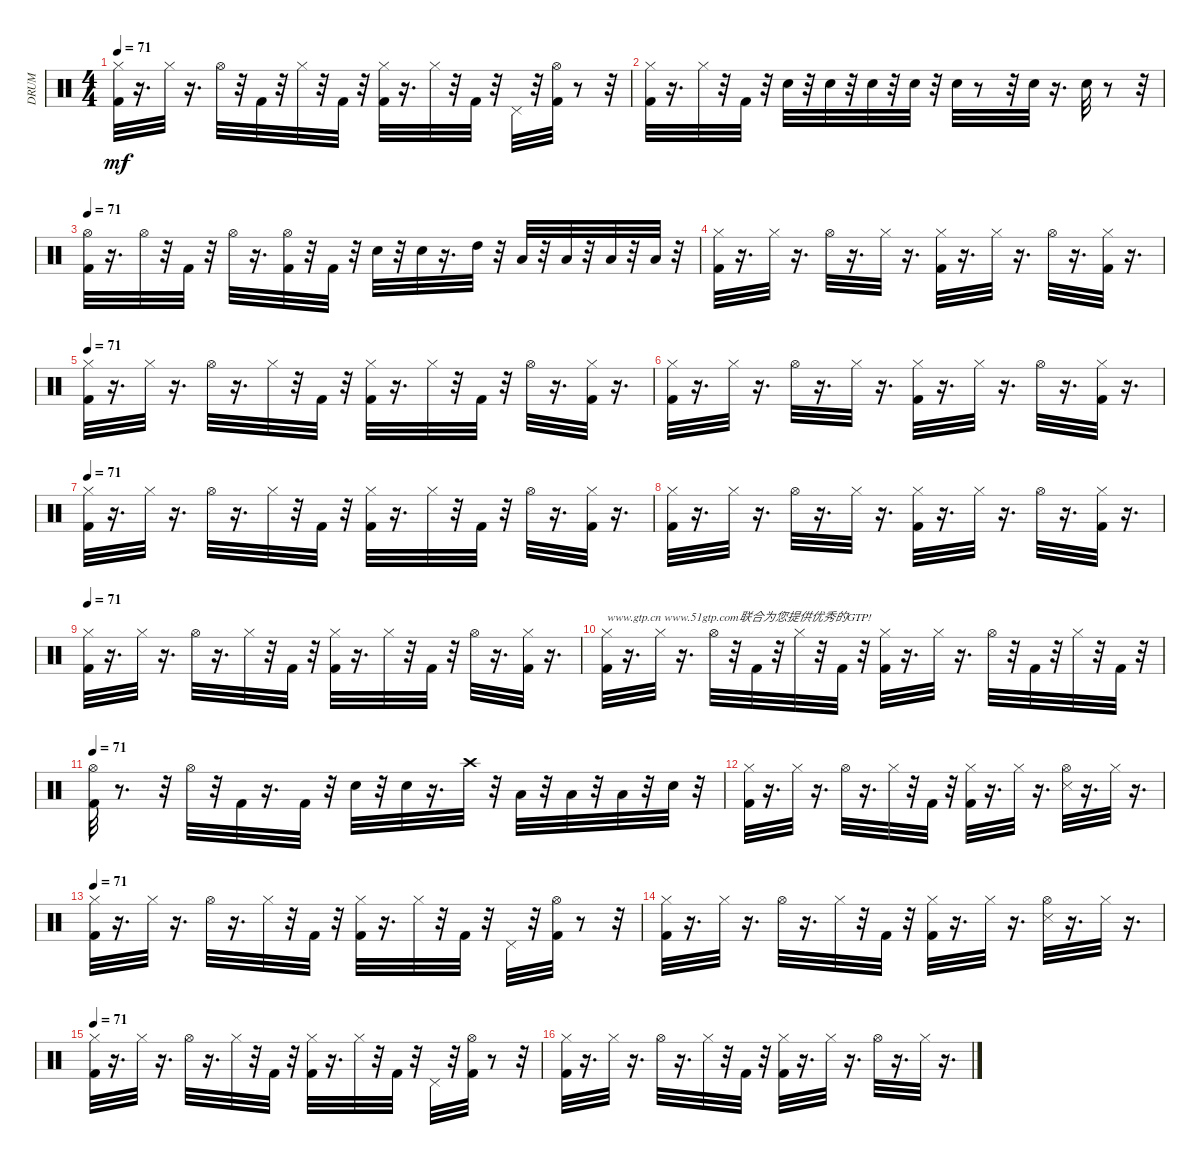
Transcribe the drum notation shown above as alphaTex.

\track ("DRUM" "DRUM") {instrument percussion}
\staff {score}
\articulation defaults
\ts (4 4)
\tempo 71
\clef neutral
\ks c
("Kick (hit) 2" "Hi-Hat (closed)").32{dy mf} r.16{d} "Hi-Hat (closed)".32 r.16{d} "Hi-Hat (open)".32 r.32 "Kick (hit) 2".32 r.32 "Hi-Hat (closed)".32 r.32 "Kick (hit) 2".32 r.32 ("Kick (hit) 2" "Hi-Hat (closed)").32 r.16{d} "Hi-Hat (closed)".32 r.32 "Kick (hit) 2".32 r.32 "Pedal Hi-Hat (hit)".32 r.32 ("Kick (hit) 2" "Hi-Hat (open)").32 r.8 r.32 |
("Kick (hit) 2" "Hi-Hat (closed)").32 r.16{d} "Hi-Hat (closed)".32 r.32 "Kick (hit) 2".32 r.32 "Snare (hit) 2".32 r.32 "Snare (hit) 2".32 r.32 "Snare (hit) 2".32 r.32 "Snare (hit) 2".32 r.32 "Snare (hit) 2".32 r.8 r.32 "Snare (hit) 2".32 r.16{d} "Snare (hit) 2".32 r.8 r.32 |
\tempo 71
("Kick (hit) 2" "Hi-Hat (open)").32 r.16{d} "Hi-Hat (open)".32 r.32 "Kick (hit) 2".32 r.32 "Hi-Hat (open)".32 r.16{d} ("Kick (hit) 2" "Hi-Hat (open)").32 r.32 "Kick (hit) 2".32 r.32 "Snare (hit) 2".32 r.32 "Snare (hit) 2".32 r.16{d} "High Tom (hit)".32 r.32 "Low Tom (hit)".32 r.32 "Low Tom (hit)".32 r.32 "Low Floor Tom (hit)".32 r.32 "Low Floor Tom (hit)".32 r.32 |
("Kick (hit) 2" "Hi-Hat (closed)").32 r.16{d} "Hi-Hat (closed)".32 r.16{d} "Hi-Hat (open)".32 r.16{d} "Hi-Hat (closed)".32 r.16{d} ("Kick (hit) 2" "Hi-Hat (closed)").32 r.16{d} "Hi-Hat (closed)".32 r.16{d} "Hi-Hat (open)".32 r.16{d} ("Kick (hit) 2" "Hi-Hat (closed)").32 r.16{d} |
\tempo 71
("Kick (hit) 2" "Hi-Hat (closed)").32 r.16{d} "Hi-Hat (closed)".32 r.16{d} "Hi-Hat (open)".32 r.16{d} "Hi-Hat (closed)".32 r.32 "Kick (hit) 2".32 r.32 ("Kick (hit) 2" "Hi-Hat (closed)").32 r.16{d} "Hi-Hat (closed)".32 r.32 "Kick (hit) 2".32 r.32 "Hi-Hat (open)".32 r.16{d} ("Kick (hit) 2" "Hi-Hat (closed)").32 r.16{d} |
("Kick (hit) 2" "Hi-Hat (closed)").32 r.16{d} "Hi-Hat (closed)".32 r.16{d} "Hi-Hat (open)".32 r.16{d} "Hi-Hat (closed)".32 r.16{d} ("Kick (hit) 2" "Hi-Hat (closed)").32 r.16{d} "Hi-Hat (closed)".32 r.16{d} "Hi-Hat (open)".32 r.16{d} ("Kick (hit) 2" "Hi-Hat (closed)").32 r.16{d} |
\tempo 71
("Kick (hit) 2" "Hi-Hat (closed)").32 r.16{d} "Hi-Hat (closed)".32 r.16{d} "Hi-Hat (open)".32 r.16{d} "Hi-Hat (closed)".32 r.32 "Kick (hit) 2".32 r.32 ("Kick (hit) 2" "Hi-Hat (closed)").32 r.16{d} "Hi-Hat (closed)".32 r.32 "Kick (hit) 2".32 r.32 "Hi-Hat (open)".32 r.16{d} ("Kick (hit) 2" "Hi-Hat (closed)").32 r.16{d} |
("Kick (hit) 2" "Hi-Hat (closed)").32 r.16{d} "Hi-Hat (closed)".32 r.16{d} "Hi-Hat (open)".32 r.16{d} "Hi-Hat (closed)".32 r.16{d} ("Kick (hit) 2" "Hi-Hat (closed)").32 r.16{d} "Hi-Hat (closed)".32 r.16{d} "Hi-Hat (open)".32 r.16{d} ("Kick (hit) 2" "Hi-Hat (closed)").32 r.16{d} |
\tempo 71
("Kick (hit) 2" "Hi-Hat (closed)").32 r.16{d} "Hi-Hat (closed)".32 r.16{d} "Hi-Hat (open)".32 r.16{d} "Hi-Hat (closed)".32 r.32 "Kick (hit) 2".32 r.32 ("Kick (hit) 2" "Hi-Hat (closed)").32 r.16{d} "Hi-Hat (closed)".32 r.32 "Kick (hit) 2".32 r.32 "Hi-Hat (open)".32 r.16{d} ("Kick (hit) 2" "Hi-Hat (closed)").32 r.16{d} |
("Kick (hit) 2" "Hi-Hat (closed)").32{txt "www.gtp.cn www.51gtp.com联合为您提供优秀的GTP!"} r.16{d} "Hi-Hat (closed)".32 r.16{d} "Hi-Hat (open)".32 r.32 "Kick (hit) 2".32 r.32 "Hi-Hat (closed)".32 r.32 "Kick (hit) 2".32 r.32 ("Kick (hit) 2" "Hi-Hat (closed)").32 r.16{d} "Hi-Hat (closed)".32 r.16{d} "Hi-Hat (open)".32 r.32 "Kick (hit) 2".32 r.32 "Hi-Hat (closed)".32 r.32 "Kick (hit) 2".32 r.32 |
\tempo 71
("Kick (hit) 2" "Hi-Hat (open)").32 r.8{d} r.32 "Hi-Hat (open)".32 r.32 "Kick (hit) 2".32 r.16{d} "Kick (hit) 2".32 r.32 "Snare (hit) 2".32 r.32 "Snare (hit) 2".32 r.16{d} "Crash high (hit)".32 r.32 "Low Tom (hit)".32 r.32 "Low Tom (hit)".32 r.32 "Low Floor Tom (hit)".32 r.32 "Snare (hit) 2".32 r.32 |
("Kick (hit) 2" "Hi-Hat (closed)").32 r.16{d} "Hi-Hat (closed)".32 r.16{d} "Hi-Hat (open)".32 r.16{d} "Hi-Hat (closed)".32 r.32 "Kick (hit) 2".32 r.32 ("Kick (hit) 2" "Hi-Hat (closed)").32 r.16{d} "Hi-Hat (closed)".32 r.16{d} ("Snare (side stick) 3" "Hi-Hat (open)").32 r.16{d} "Hi-Hat (closed)".32 r.16{d} |
\tempo 71
("Kick (hit) 2" "Hi-Hat (closed)").32 r.16{d} "Hi-Hat (closed)".32 r.16{d} "Hi-Hat (open)".32 r.16{d} "Hi-Hat (closed)".32 r.32 "Kick (hit) 2".32 r.32 ("Kick (hit) 2" "Hi-Hat (closed)").32 r.16{d} "Hi-Hat (closed)".32 r.32 "Kick (hit) 2".32 r.32 "Pedal Hi-Hat (hit)".32 r.32 ("Kick (hit) 2" "Hi-Hat (open)").32 r.8 r.32 |
("Kick (hit) 2" "Hi-Hat (closed)").32 r.16{d} "Hi-Hat (closed)".32 r.16{d} "Hi-Hat (open)".32 r.16{d} "Hi-Hat (closed)".32 r.32 "Kick (hit) 2".32 r.32 ("Kick (hit) 2" "Hi-Hat (closed)").32 r.16{d} "Hi-Hat (closed)".32 r.16{d} ("Snare (side stick) 3" "Hi-Hat (open)").32 r.16{d} "Hi-Hat (closed)".32 r.16{d} |
\tempo 71
("Kick (hit) 2" "Hi-Hat (closed)").32 r.16{d} "Hi-Hat (closed)".32 r.16{d} "Hi-Hat (open)".32 r.16{d} "Hi-Hat (closed)".32 r.32 "Kick (hit) 2".32 r.32 ("Kick (hit) 2" "Hi-Hat (closed)").32 r.16{d} "Hi-Hat (closed)".32 r.32 "Kick (hit) 2".32 r.32 "Pedal Hi-Hat (hit)".32 r.32 ("Kick (hit) 2" "Hi-Hat (open)").32 r.8 r.32 |
("Kick (hit) 2" "Hi-Hat (closed)").32 r.16{d} "Hi-Hat (closed)".32 r.16{d} "Hi-Hat (open)".32 r.16{d} "Hi-Hat (closed)".32 r.32 "Kick (hit) 2".32 r.32 ("Kick (hit) 2" "Hi-Hat (closed)").32 r.16{d} "Hi-Hat (closed)".32 r.16{d} "Hi-Hat (open)".32 r.16{d} "Hi-Hat (closed)".32 r.16{d}
